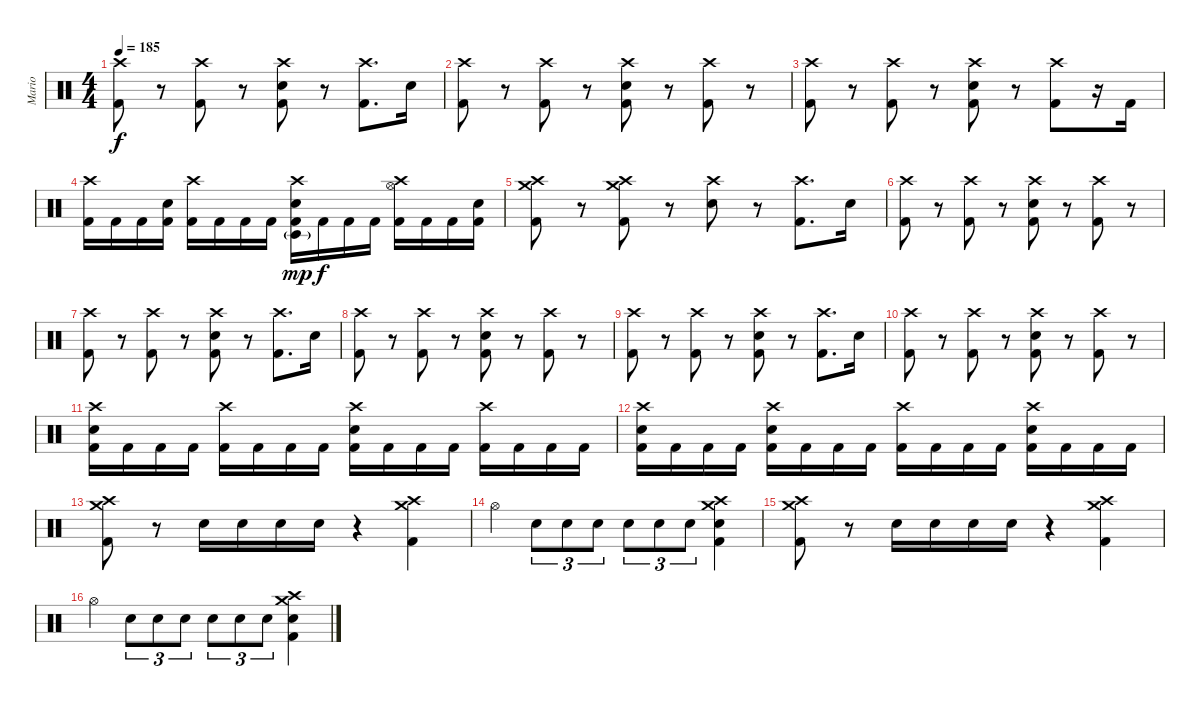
\track ("Mario" "Mario") {instrument percussion}
\staff {score}
\articulation defaults
\ts (4 4)
\tempo 185
\clef neutral
\ks c
("Crash high (hit)" "Kick (hit) 2").8{dy f} r.8 ("Crash high (hit)" "Kick (hit) 2").8 r.8 ("Crash high (hit)" "Electric Snare (hit)" "Kick (hit) 2").8 r.8 ("Crash high (hit)" "Kick (hit) 2").8{d} "Electric Snare (hit)".16 |
("Crash high (hit)" "Kick (hit) 2").8 r.8 ("Crash high (hit)" "Kick (hit) 2").8 r.8 ("Crash high (hit)" "Electric Snare (hit)" "Kick (hit) 2").8 r.8 ("Crash high (hit)" "Kick (hit) 2").8 r.8 |
("Crash high (hit)" "Kick (hit) 2").8 r.8 ("Crash high (hit)" "Kick (hit) 2").8 r.8 ("Crash high (hit)" "Electric Snare (hit)" "Kick (hit) 2").8 r.8 ("Crash high (hit)" "Kick (hit) 2").8 r.16 "Kick (hit) 2".16 |
("Crash high (hit)" "Kick (hit) 2").16 "Kick (hit) 2".16 "Kick (hit) 2".16 ("Electric Snare (hit)" "Kick (hit) 2").16 ("Crash high (hit)" "Kick (hit) 2").16 "Kick (hit) 2".16 "Kick (hit) 2".16 "Kick (hit) 2".16 ("Crash high (hit)" "Timbale low (hit)"{g} "Electric Snare (hit)" "Kick (hit) 2").16{dy mp} "Kick (hit) 2".16{dy f} "Kick (hit) 2".16 "Kick (hit) 2".16 ("Crash high (hit)" "Hi-Hat (open)" "Kick (hit) 2").16 "Kick (hit) 2".16 "Kick (hit) 2".16 ("Electric Snare (hit)" "Kick (hit) 2").16 |
("Crash high (hit)" "Crash medium (hit)" "Kick (hit) 2").8 r.8 ("Crash high (hit)" "Crash medium (hit)" "Kick (hit) 2").8 r.8 ("Crash high (hit)" "Electric Snare (hit)").8 r.8 ("Crash high (hit)" "Kick (hit) 2").8{d} "Electric Snare (hit)".16 |
("Crash high (hit)" "Kick (hit) 2").8 r.8 ("Crash high (hit)" "Kick (hit) 2").8 r.8 ("Crash high (hit)" "Electric Snare (hit)" "Kick (hit) 2").8 r.8 ("Crash high (hit)" "Kick (hit) 2").8 r.8 |
("Crash high (hit)" "Kick (hit) 2").8 r.8 ("Crash high (hit)" "Kick (hit) 2").8 r.8 ("Crash high (hit)" "Electric Snare (hit)" "Kick (hit) 2").8 r.8 ("Crash high (hit)" "Kick (hit) 2").8{d} "Electric Snare (hit)".16 |
("Crash high (hit)" "Kick (hit) 2").8 r.8 ("Crash high (hit)" "Kick (hit) 2").8 r.8 ("Crash high (hit)" "Electric Snare (hit)" "Kick (hit) 2").8 r.8 ("Crash high (hit)" "Kick (hit) 2").8 r.8 |
("Crash high (hit)" "Kick (hit) 2").8 r.8 ("Crash high (hit)" "Kick (hit) 2").8 r.8 ("Crash high (hit)" "Electric Snare (hit)" "Kick (hit) 2").8 r.8 ("Crash high (hit)" "Kick (hit) 2").8{d} "Electric Snare (hit)".16 |
("Crash high (hit)" "Kick (hit) 2").8 r.8 ("Crash high (hit)" "Kick (hit) 2").8 r.8 ("Crash high (hit)" "Electric Snare (hit)" "Kick (hit) 2").8 r.8 ("Crash high (hit)" "Kick (hit) 2").8 r.8 |
("Crash high (hit)" "Electric Snare (hit)" "Kick (hit) 2").16 "Kick (hit) 2".16 "Kick (hit) 2".16 "Kick (hit) 2".16 ("Crash high (hit)" "Kick (hit) 2").16 "Kick (hit) 2".16 "Kick (hit) 2".16 "Kick (hit) 2".16 ("Crash high (hit)" "Electric Snare (hit)" "Kick (hit) 2").16 "Kick (hit) 2".16 "Kick (hit) 2".16 "Kick (hit) 2".16 ("Crash high (hit)" "Kick (hit) 2").16 "Kick (hit) 2".16 "Kick (hit) 2".16 "Kick (hit) 2".16 |
("Crash high (hit)" "Electric Snare (hit)" "Kick (hit) 2").16 "Kick (hit) 2".16 "Kick (hit) 2".16 "Kick (hit) 2".16 ("Crash high (hit)" "Electric Snare (hit)" "Kick (hit) 2").16 "Kick (hit) 2".16 "Kick (hit) 2".16 "Kick (hit) 2".16 ("Crash high (hit)" "Kick (hit) 2").16 "Kick (hit) 2".16 "Kick (hit) 2".16 "Kick (hit) 2".16 ("Crash high (hit)" "Electric Snare (hit)" "Kick (hit) 2").16 "Kick (hit) 2".16 "Kick (hit) 2".16 "Kick (hit) 2".16 |
("Crash high (hit)" "Crash medium (hit)" "Kick (hit) 2").8 r.8 "Electric Snare (hit)".16 "Electric Snare (hit)".16 "Electric Snare (hit)".16 "Electric Snare (hit)".16 r.4 ("Crash high (hit)" "Crash medium (hit)" "Kick (hit) 2").4 |
"Hi-Hat (open)".4 "Electric Snare (hit)".8{tu (3 2)} "Electric Snare (hit)".8{tu (3 2)} "Electric Snare (hit)".8{tu (3 2)} "Electric Snare (hit)".8{tu (3 2)} "Electric Snare (hit)".8{tu (3 2)} "Electric Snare (hit)".8{tu (3 2)} ("Crash high (hit)" "Crash medium (hit)" "Electric Snare (hit)" "Kick (hit) 2").4 |
("Crash high (hit)" "Crash medium (hit)" "Kick (hit) 2").8 r.8 "Electric Snare (hit)".16 "Electric Snare (hit)".16 "Electric Snare (hit)".16 "Electric Snare (hit)".16 r.4 ("Crash high (hit)" "Crash medium (hit)" "Kick (hit) 2").4 |
"Hi-Hat (open)".4 "Electric Snare (hit)".8{tu (3 2)} "Electric Snare (hit)".8{tu (3 2)} "Electric Snare (hit)".8{tu (3 2)} "Electric Snare (hit)".8{tu (3 2)} "Electric Snare (hit)".8{tu (3 2)} "Electric Snare (hit)".8{tu (3 2)} ("Crash high (hit)" "Crash medium (hit)" "Electric Snare (hit)" "Kick (hit) 2").4
